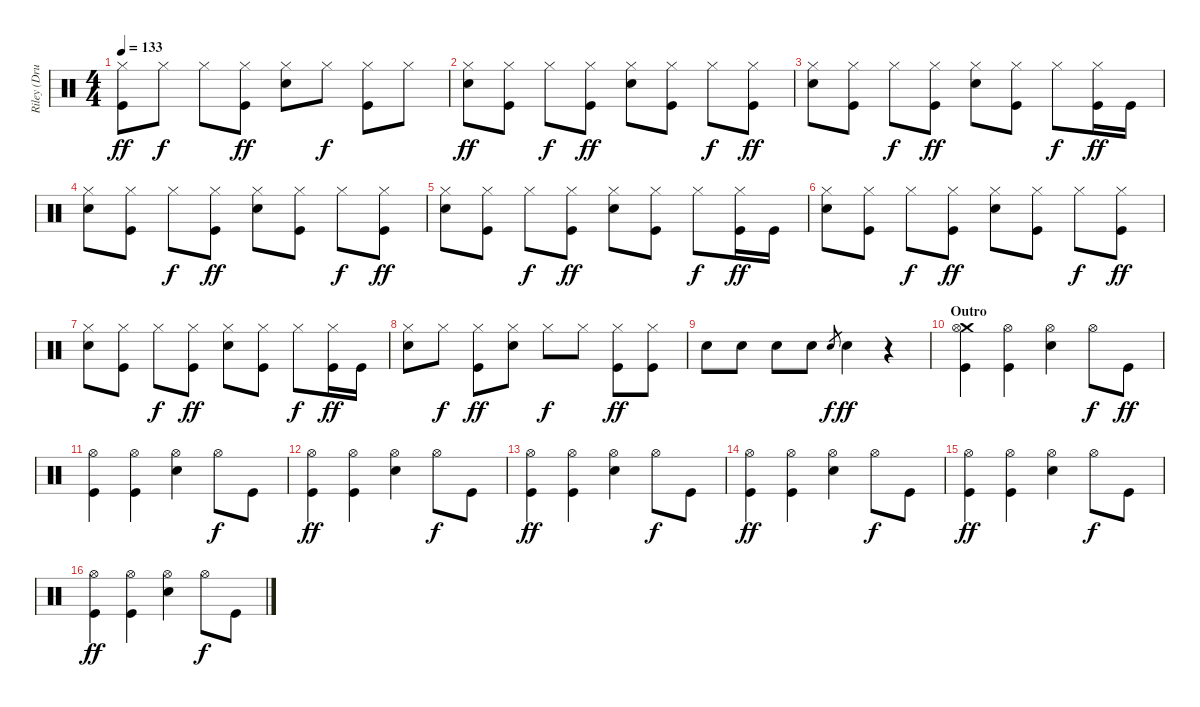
\track ("Riley (Drums)" "Riley (Dru") {instrument percussion}
\staff {score}
\articulation defaults
\ts (4 4)
\tempo 133
\clef neutral
\ks c
("Hi-Hat (closed)" "Kick (hit)").8{dy ff} "Hi-Hat (closed)".8{dy f} "Hi-Hat (closed)".8 ("Hi-Hat (closed)" "Kick (hit)").8{dy ff} ("Hi-Hat (closed)" "Electric Snare (hit)").8 "Hi-Hat (closed)".8{dy f} ("Hi-Hat (closed)" "Kick (hit)").8 "Hi-Hat (closed)".8 |
("Hi-Hat (closed)" "Electric Snare (hit)").8{dy ff} ("Hi-Hat (closed)" "Kick (hit)").8 "Hi-Hat (closed)".8{dy f} ("Hi-Hat (closed)" "Kick (hit)").8{dy ff} ("Hi-Hat (closed)" "Electric Snare (hit)").8 ("Hi-Hat (closed)" "Kick (hit)").8 "Hi-Hat (closed)".8{dy f} ("Hi-Hat (closed)" "Kick (hit)").8{dy ff} |
("Hi-Hat (closed)" "Electric Snare (hit)").8 ("Hi-Hat (closed)" "Kick (hit)").8 "Hi-Hat (closed)".8{dy f} ("Hi-Hat (closed)" "Kick (hit)").8{dy ff} ("Hi-Hat (closed)" "Electric Snare (hit)").8 ("Hi-Hat (closed)" "Kick (hit)").8 "Hi-Hat (closed)".8{dy f} ("Hi-Hat (closed)" "Kick (hit)").16{dy ff} "Kick (hit)".16 |
("Hi-Hat (closed)" "Electric Snare (hit)").8 ("Hi-Hat (closed)" "Kick (hit)").8 "Hi-Hat (closed)".8{dy f} ("Hi-Hat (closed)" "Kick (hit)").8{dy ff} ("Hi-Hat (closed)" "Electric Snare (hit)").8 ("Hi-Hat (closed)" "Kick (hit)").8 "Hi-Hat (closed)".8{dy f} ("Hi-Hat (closed)" "Kick (hit)").8{dy ff} |
("Hi-Hat (closed)" "Electric Snare (hit)").8 ("Hi-Hat (closed)" "Kick (hit)").8 "Hi-Hat (closed)".8{dy f} ("Hi-Hat (closed)" "Kick (hit)").8{dy ff} ("Hi-Hat (closed)" "Electric Snare (hit)").8 ("Hi-Hat (closed)" "Kick (hit)").8 "Hi-Hat (closed)".8{dy f} ("Hi-Hat (closed)" "Kick (hit)").16{dy ff} "Kick (hit)".16 |
("Hi-Hat (closed)" "Electric Snare (hit)").8 ("Hi-Hat (closed)" "Kick (hit)").8 "Hi-Hat (closed)".8{dy f} ("Hi-Hat (closed)" "Kick (hit)").8{dy ff} ("Hi-Hat (closed)" "Electric Snare (hit)").8 ("Hi-Hat (closed)" "Kick (hit)").8 "Hi-Hat (closed)".8{dy f} ("Hi-Hat (closed)" "Kick (hit)").8{dy ff} |
("Hi-Hat (closed)" "Electric Snare (hit)").8 ("Hi-Hat (closed)" "Kick (hit)").8 "Hi-Hat (closed)".8{dy f} ("Hi-Hat (closed)" "Kick (hit)").8{dy ff} ("Hi-Hat (closed)" "Electric Snare (hit)").8 ("Hi-Hat (closed)" "Kick (hit)").8 "Hi-Hat (closed)".8{dy f} ("Hi-Hat (closed)" "Kick (hit)").16{dy ff} "Kick (hit)".16 |
("Hi-Hat (closed)" "Electric Snare (hit)").8 "Hi-Hat (closed)".8{dy f} ("Hi-Hat (closed)" "Kick (hit)").8{dy ff} ("Hi-Hat (closed)" "Electric Snare (hit)").8 "Hi-Hat (closed)".8{dy f} "Hi-Hat (closed)".8 ("Hi-Hat (closed)" "Kick (hit)").8{dy ff} ("Hi-Hat (closed)" "Kick (hit)").8 |
"Electric Snare (hit)".8 "Electric Snare (hit)".8 "Electric Snare (hit)".8 "Electric Snare (hit)".8 "Electric Snare (hit)".8{gr dy f} "Electric Snare (hit)".4{dy ff} r.4 |
\section ("" "Outro")
("Crash medium (hit)" "Hi-Hat (open)" "Kick (hit)").4 ("Hi-Hat (open)" "Kick (hit)").4 ("Hi-Hat (open)" "Electric Snare (hit)").4 "Hi-Hat (open)".8{dy f} "Kick (hit)".8{dy ff} |
("Hi-Hat (open)" "Kick (hit)").4 ("Hi-Hat (open)" "Kick (hit)").4 ("Hi-Hat (open)" "Electric Snare (hit)").4 "Hi-Hat (open)".8{dy f} "Kick (hit)".8 |
("Hi-Hat (open)" "Kick (hit)").4{dy ff} ("Hi-Hat (open)" "Kick (hit)").4 ("Hi-Hat (open)" "Electric Snare (hit)").4 "Hi-Hat (open)".8{dy f} "Kick (hit)".8 |
("Hi-Hat (open)" "Kick (hit)").4{dy ff} ("Hi-Hat (open)" "Kick (hit)").4 ("Hi-Hat (open)" "Electric Snare (hit)").4 "Hi-Hat (open)".8{dy f} "Kick (hit)".8 |
("Hi-Hat (open)" "Kick (hit)").4{dy ff} ("Hi-Hat (open)" "Kick (hit)").4 ("Hi-Hat (open)" "Electric Snare (hit)").4 "Hi-Hat (open)".8{dy f} "Kick (hit)".8 |
("Hi-Hat (open)" "Kick (hit)").4{dy ff} ("Hi-Hat (open)" "Kick (hit)").4 ("Hi-Hat (open)" "Electric Snare (hit)").4 "Hi-Hat (open)".8{dy f} "Kick (hit)".8 |
("Hi-Hat (open)" "Kick (hit)").4{dy ff} ("Hi-Hat (open)" "Kick (hit)").4 ("Hi-Hat (open)" "Electric Snare (hit)").4 "Hi-Hat (open)".8{dy f} "Kick (hit)".8
